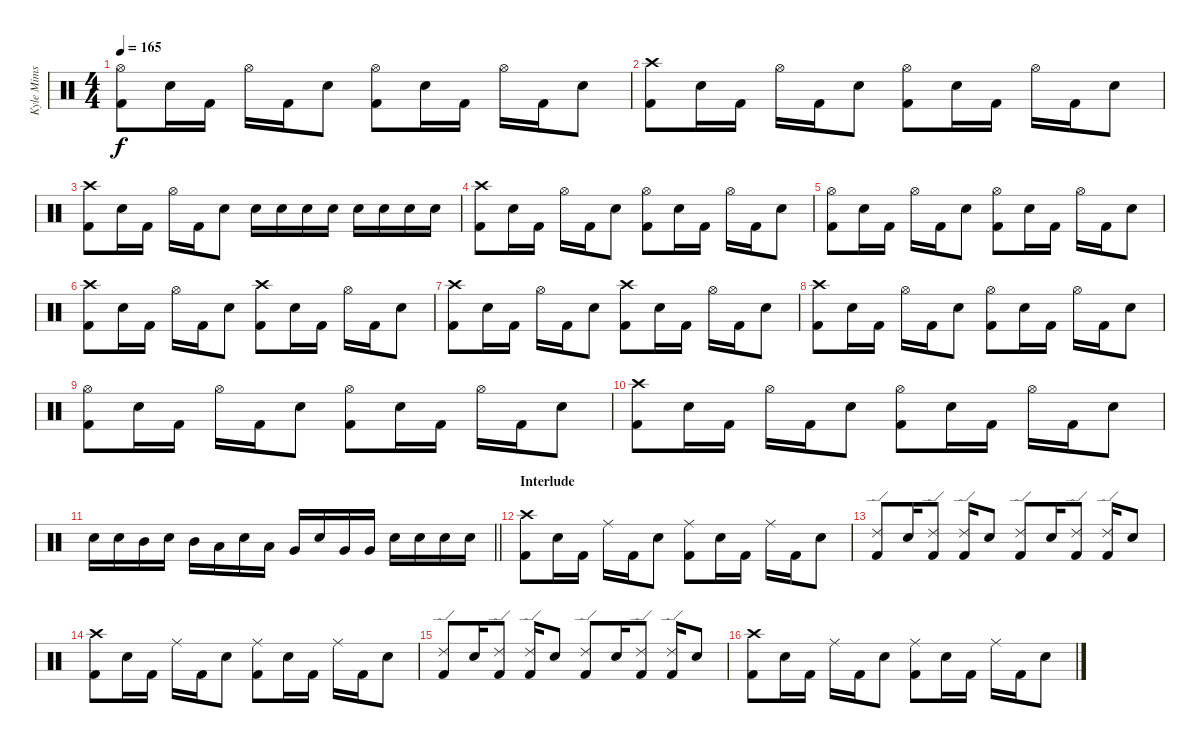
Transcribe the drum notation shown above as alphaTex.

\track ("Kyle Mims" "Kyle Mims") {instrument percussion}
\staff {score}
\articulation defaults
\ts (4 4)
\tempo 165
\clef neutral
\ks c
("Hi-Hat (open)" "Kick (hit) 2").8{dy f} "Electric Snare (hit)".16 "Kick (hit) 2".16 "Hi-Hat (open)".16 "Kick (hit) 2".16 "Electric Snare (hit)".8 ("Hi-Hat (open)" "Kick (hit) 2").8 "Electric Snare (hit)".16 "Kick (hit) 2".16 "Hi-Hat (open)".16 "Kick (hit) 2".16 "Electric Snare (hit)".8 |
("Crash high (hit)" "Kick (hit) 2").8 "Electric Snare (hit)".16 "Kick (hit) 2".16 "Hi-Hat (open)".16 "Kick (hit) 2".16 "Electric Snare (hit)".8 ("Hi-Hat (open)" "Kick (hit) 2").8 "Electric Snare (hit)".16 "Kick (hit) 2".16 "Hi-Hat (open)".16 "Kick (hit) 2".16 "Electric Snare (hit)".8 |
("Crash high (hit)" "Kick (hit) 2").8 "Electric Snare (hit)".16 "Kick (hit) 2".16 "Hi-Hat (open)".16 "Kick (hit) 2".16 "Electric Snare (hit)".8 "Electric Snare (hit)".16 "Electric Snare (hit)".16 "Electric Snare (hit)".16 "Electric Snare (hit)".16 "Electric Snare (hit)".16 "Electric Snare (hit)".16 "Electric Snare (hit)".16 "Electric Snare (hit)".16 |
("Crash high (hit)" "Kick (hit) 2").8 "Electric Snare (hit)".16 "Kick (hit) 2".16 "Hi-Hat (open)".16 "Kick (hit) 2".16 "Electric Snare (hit)".8 ("Hi-Hat (open)" "Kick (hit) 2").8 "Electric Snare (hit)".16 "Kick (hit) 2".16 "Hi-Hat (open)".16 "Kick (hit) 2".16 "Electric Snare (hit)".8 |
("Hi-Hat (open)" "Kick (hit) 2").8 "Electric Snare (hit)".16 "Kick (hit) 2".16 "Hi-Hat (open)".16 "Kick (hit) 2".16 "Electric Snare (hit)".8 ("Hi-Hat (open)" "Kick (hit) 2").8 "Electric Snare (hit)".16 "Kick (hit) 2".16 "Hi-Hat (open)".16 "Kick (hit) 2".16 "Electric Snare (hit)".8 |
("Crash high (hit)" "Kick (hit) 2").8 "Electric Snare (hit)".16 "Kick (hit) 2".16 "Hi-Hat (open)".16 "Kick (hit) 2".16 "Electric Snare (hit)".8 ("Crash high (hit)" "Kick (hit) 2").8 "Electric Snare (hit)".16 "Kick (hit) 2".16 "Hi-Hat (open)".16 "Kick (hit) 2".16 "Electric Snare (hit)".8 |
("Crash high (hit)" "Kick (hit) 2").8 "Electric Snare (hit)".16 "Kick (hit) 2".16 "Hi-Hat (open)".16 "Kick (hit) 2".16 "Electric Snare (hit)".8 ("Crash high (hit)" "Kick (hit) 2").8 "Electric Snare (hit)".16 "Kick (hit) 2".16 "Hi-Hat (open)".16 "Kick (hit) 2".16 "Electric Snare (hit)".8 |
("Crash high (hit)" "Kick (hit) 2").8 "Electric Snare (hit)".16 "Kick (hit) 2".16 "Hi-Hat (open)".16 "Kick (hit) 2".16 "Electric Snare (hit)".8 ("Hi-Hat (open)" "Kick (hit) 2").8 "Electric Snare (hit)".16 "Kick (hit) 2".16 "Hi-Hat (open)".16 "Kick (hit) 2".16 "Electric Snare (hit)".8 |
("Hi-Hat (open)" "Kick (hit) 2").8 "Electric Snare (hit)".16 "Kick (hit) 2".16 "Hi-Hat (open)".16 "Kick (hit) 2".16 "Electric Snare (hit)".8 ("Hi-Hat (open)" "Kick (hit) 2").8 "Electric Snare (hit)".16 "Kick (hit) 2".16 "Hi-Hat (open)".16 "Kick (hit) 2".16 "Electric Snare (hit)".8 |
("Crash high (hit)" "Kick (hit) 2").8 "Electric Snare (hit)".16 "Kick (hit) 2".16 "Hi-Hat (open)".16 "Kick (hit) 2".16 "Electric Snare (hit)".8 ("Hi-Hat (open)" "Kick (hit) 2").8 "Electric Snare (hit)".16 "Kick (hit) 2".16 "Hi-Hat (open)".16 "Kick (hit) 2".16 "Electric Snare (hit)".8 |
\barLineRight lightlight "Electric Snare (hit)".16 "Electric Snare (hit)".16 "Mid Tom (hit)".16 "Electric Snare (hit)".16 "Mid Tom (hit)".16 "Low Tom (hit)".16 "Electric Snare (hit)".16 "Low Tom (hit)".16 "Very Low Tom (hit)".16 "Electric Snare (hit)".16 "Very Low Tom (hit)".16 "Very Low Tom (hit)".16 "Electric Snare (hit)".16 "Electric Snare (hit)".16 "Electric Snare (hit)".16 "Electric Snare (hit)".16
|
\section ("" "Interlude")
("Crash high (hit)" "Kick (hit) 2").8 "Electric Snare (hit)".16 "Kick (hit) 2".16 "Ride (middle)".16 "Kick (hit) 2".16 "Electric Snare (hit)".8 ("Ride (middle)" "Kick (hit) 2").8 "Electric Snare (hit)".16 "Kick (hit) 2".16 "Ride (middle)".16 "Kick (hit) 2".16 "Electric Snare (hit)".8 |
("Ride (edge) 2" "Kick (hit) 2").8 "Electric Snare (hit)".16 ("Ride (edge) 2" "Kick (hit) 2").8 ("Ride (edge) 2" "Kick (hit) 2").16 "Electric Snare (hit)".8 ("Ride (edge) 2" "Kick (hit) 2").8 "Electric Snare (hit)".16 ("Ride (edge) 2" "Kick (hit) 2").8 ("Ride (edge) 2" "Kick (hit) 2").16 "Electric Snare (hit)".8 |
("Crash high (hit)" "Kick (hit) 2").8 "Electric Snare (hit)".16 "Kick (hit) 2".16 "Ride (middle)".16 "Kick (hit) 2".16 "Electric Snare (hit)".8 ("Ride (middle)" "Kick (hit) 2").8 "Electric Snare (hit)".16 "Kick (hit) 2".16 "Ride (middle)".16 "Kick (hit) 2".16 "Electric Snare (hit)".8 |
("Ride (edge) 2" "Kick (hit) 2").8 "Electric Snare (hit)".16 ("Ride (edge) 2" "Kick (hit) 2").8 ("Ride (edge) 2" "Kick (hit) 2").16 "Electric Snare (hit)".8 ("Ride (edge) 2" "Kick (hit) 2").8 "Electric Snare (hit)".16 ("Ride (edge) 2" "Kick (hit) 2").8 ("Ride (edge) 2" "Kick (hit) 2").16 "Electric Snare (hit)".8 |
("Crash high (hit)" "Kick (hit) 2").8 "Electric Snare (hit)".16 "Kick (hit) 2".16 "Ride (middle)".16 "Kick (hit) 2".16 "Electric Snare (hit)".8 ("Ride (middle)" "Kick (hit) 2").8 "Electric Snare (hit)".16 "Kick (hit) 2".16 "Ride (middle)".16 "Kick (hit) 2".16 "Electric Snare (hit)".8
